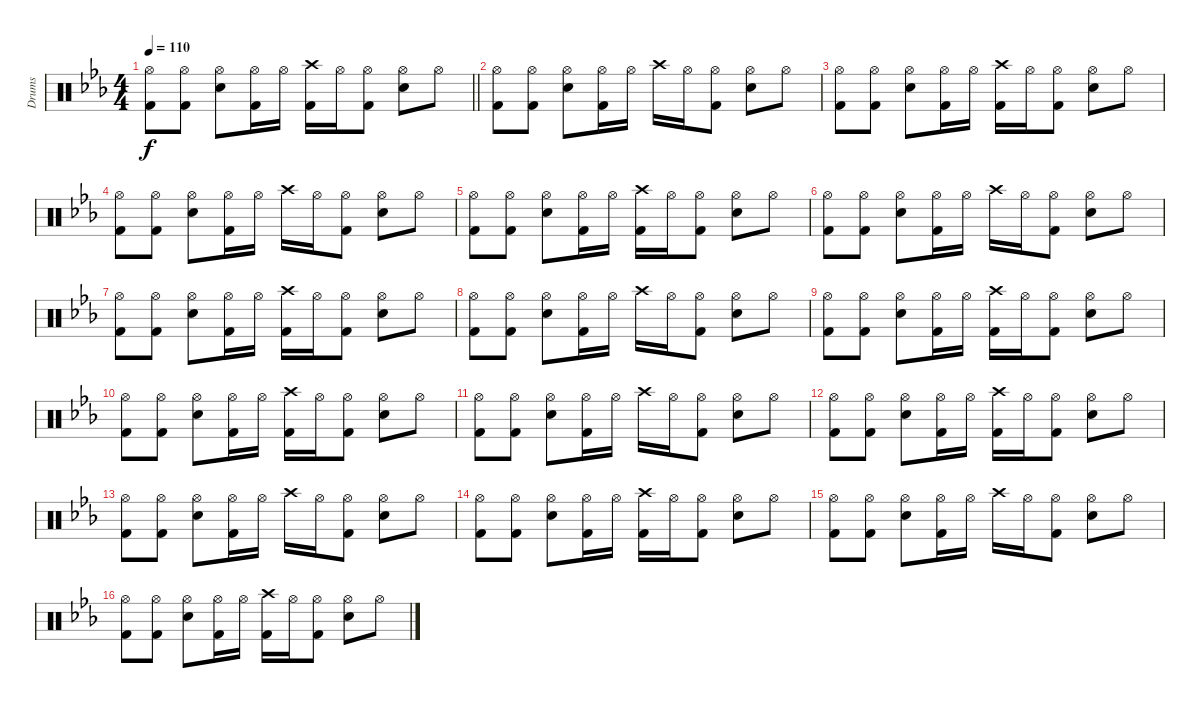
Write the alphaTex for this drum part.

\track ("Drums" "Drums") {instrument percussion}
\staff {score}
\articulation defaults
\ts (4 4)
\tempo 110
\clef neutral
\barLineRight lightlight
\ks eb
("Hi-Hat (open)" "Kick (hit) 2").8{dy f} ("Hi-Hat (open)" "Kick (hit) 2").8 ("Hi-Hat (open)" "Snare (hit) 2").8 ("Hi-Hat (open)" "Kick (hit) 2").16 "Hi-Hat (open)".16 ("Crash high (hit)" "Kick (hit) 2").16 "Hi-Hat (open)".16 ("Hi-Hat (open)" "Kick (hit) 2").8 ("Hi-Hat (open)" "Snare (hit) 2").8 "Hi-Hat (open)".8 |
("Hi-Hat (open)" "Kick (hit) 2").8 ("Hi-Hat (open)" "Kick (hit) 2").8 ("Hi-Hat (open)" "Snare (hit) 2").8 ("Hi-Hat (open)" "Kick (hit) 2").16 "Hi-Hat (open)".16 "Crash high (hit)".16 "Hi-Hat (open)".16 ("Hi-Hat (open)" "Kick (hit) 2").8 ("Hi-Hat (open)" "Snare (hit) 2").8 "Hi-Hat (open)".8 |
("Hi-Hat (open)" "Kick (hit) 2").8 ("Hi-Hat (open)" "Kick (hit) 2").8 ("Hi-Hat (open)" "Snare (hit) 2").8 ("Hi-Hat (open)" "Kick (hit) 2").16 "Hi-Hat (open)".16 ("Crash high (hit)" "Kick (hit) 2").16 "Hi-Hat (open)".16 ("Hi-Hat (open)" "Kick (hit) 2").8 ("Hi-Hat (open)" "Snare (hit) 2").8 "Hi-Hat (open)".8 |
("Hi-Hat (open)" "Kick (hit) 2").8 ("Hi-Hat (open)" "Kick (hit) 2").8 ("Hi-Hat (open)" "Snare (hit) 2").8 ("Hi-Hat (open)" "Kick (hit) 2").16 "Hi-Hat (open)".16 "Crash high (hit)".16 "Hi-Hat (open)".16 ("Hi-Hat (open)" "Kick (hit) 2").8 ("Hi-Hat (open)" "Snare (hit) 2").8 "Hi-Hat (open)".8 |
("Hi-Hat (open)" "Kick (hit) 2").8 ("Hi-Hat (open)" "Kick (hit) 2").8 ("Hi-Hat (open)" "Snare (hit) 2").8 ("Hi-Hat (open)" "Kick (hit) 2").16 "Hi-Hat (open)".16 ("Crash high (hit)" "Kick (hit) 2").16 "Hi-Hat (open)".16 ("Hi-Hat (open)" "Kick (hit) 2").8 ("Hi-Hat (open)" "Snare (hit) 2").8 "Hi-Hat (open)".8 |
("Hi-Hat (open)" "Kick (hit) 2").8 ("Hi-Hat (open)" "Kick (hit) 2").8 ("Hi-Hat (open)" "Snare (hit) 2").8 ("Hi-Hat (open)" "Kick (hit) 2").16 "Hi-Hat (open)".16 "Crash high (hit)".16 "Hi-Hat (open)".16 ("Hi-Hat (open)" "Kick (hit) 2").8 ("Hi-Hat (open)" "Snare (hit) 2").8 "Hi-Hat (open)".8 |
("Hi-Hat (open)" "Kick (hit) 2").8 ("Hi-Hat (open)" "Kick (hit) 2").8 ("Hi-Hat (open)" "Snare (hit) 2").8 ("Hi-Hat (open)" "Kick (hit) 2").16 "Hi-Hat (open)".16 ("Crash high (hit)" "Kick (hit) 2").16 "Hi-Hat (open)".16 ("Hi-Hat (open)" "Kick (hit) 2").8 ("Hi-Hat (open)" "Snare (hit) 2").8 "Hi-Hat (open)".8 |
("Hi-Hat (open)" "Kick (hit) 2").8 ("Hi-Hat (open)" "Kick (hit) 2").8 ("Hi-Hat (open)" "Snare (hit) 2").8 ("Hi-Hat (open)" "Kick (hit) 2").16 "Hi-Hat (open)".16 "Crash high (hit)".16 "Hi-Hat (open)".16 ("Hi-Hat (open)" "Kick (hit) 2").8 ("Hi-Hat (open)" "Snare (hit) 2").8 "Hi-Hat (open)".8 |
("Hi-Hat (open)" "Kick (hit) 2").8 ("Hi-Hat (open)" "Kick (hit) 2").8 ("Hi-Hat (open)" "Snare (hit) 2").8 ("Hi-Hat (open)" "Kick (hit) 2").16 "Hi-Hat (open)".16 ("Crash high (hit)" "Kick (hit) 2").16 "Hi-Hat (open)".16 ("Hi-Hat (open)" "Kick (hit) 2").8 ("Hi-Hat (open)" "Snare (hit) 2").8 "Hi-Hat (open)".8 |
("Hi-Hat (open)" "Kick (hit) 2").8 ("Hi-Hat (open)" "Kick (hit) 2").8 ("Hi-Hat (open)" "Snare (hit) 2").8 ("Hi-Hat (open)" "Kick (hit) 2").16 "Hi-Hat (open)".16 ("Crash high (hit)" "Kick (hit) 2").16 "Hi-Hat (open)".16 ("Hi-Hat (open)" "Kick (hit) 2").8 ("Hi-Hat (open)" "Snare (hit) 2").8 "Hi-Hat (open)".8 |
("Hi-Hat (open)" "Kick (hit) 2").8 ("Hi-Hat (open)" "Kick (hit) 2").8 ("Hi-Hat (open)" "Snare (hit) 2").8 ("Hi-Hat (open)" "Kick (hit) 2").16 "Hi-Hat (open)".16 "Crash high (hit)".16 "Hi-Hat (open)".16 ("Hi-Hat (open)" "Kick (hit) 2").8 ("Hi-Hat (open)" "Snare (hit) 2").8 "Hi-Hat (open)".8 |
("Hi-Hat (open)" "Kick (hit) 2").8 ("Hi-Hat (open)" "Kick (hit) 2").8 ("Hi-Hat (open)" "Snare (hit) 2").8 ("Hi-Hat (open)" "Kick (hit) 2").16 "Hi-Hat (open)".16 ("Crash high (hit)" "Kick (hit) 2").16 "Hi-Hat (open)".16 ("Hi-Hat (open)" "Kick (hit) 2").8 ("Hi-Hat (open)" "Snare (hit) 2").8 "Hi-Hat (open)".8 |
("Hi-Hat (open)" "Kick (hit) 2").8 ("Hi-Hat (open)" "Kick (hit) 2").8 ("Hi-Hat (open)" "Snare (hit) 2").8 ("Hi-Hat (open)" "Kick (hit) 2").16 "Hi-Hat (open)".16 "Crash high (hit)".16 "Hi-Hat (open)".16 ("Hi-Hat (open)" "Kick (hit) 2").8 ("Hi-Hat (open)" "Snare (hit) 2").8 "Hi-Hat (open)".8 |
("Hi-Hat (open)" "Kick (hit) 2").8 ("Hi-Hat (open)" "Kick (hit) 2").8 ("Hi-Hat (open)" "Snare (hit) 2").8 ("Hi-Hat (open)" "Kick (hit) 2").16 "Hi-Hat (open)".16 ("Crash high (hit)" "Kick (hit) 2").16 "Hi-Hat (open)".16 ("Hi-Hat (open)" "Kick (hit) 2").8 ("Hi-Hat (open)" "Snare (hit) 2").8 "Hi-Hat (open)".8 |
("Hi-Hat (open)" "Kick (hit) 2").8 ("Hi-Hat (open)" "Kick (hit) 2").8 ("Hi-Hat (open)" "Snare (hit) 2").8 ("Hi-Hat (open)" "Kick (hit) 2").16 "Hi-Hat (open)".16 "Crash high (hit)".16 "Hi-Hat (open)".16 ("Hi-Hat (open)" "Kick (hit) 2").8 ("Hi-Hat (open)" "Snare (hit) 2").8 "Hi-Hat (open)".8 |
("Hi-Hat (open)" "Kick (hit) 2").8 ("Hi-Hat (open)" "Kick (hit) 2").8 ("Hi-Hat (open)" "Snare (hit) 2").8 ("Hi-Hat (open)" "Kick (hit) 2").16 "Hi-Hat (open)".16 ("Crash high (hit)" "Kick (hit) 2").16 "Hi-Hat (open)".16 ("Hi-Hat (open)" "Kick (hit) 2").8 ("Hi-Hat (open)" "Snare (hit) 2").8 "Hi-Hat (open)".8
